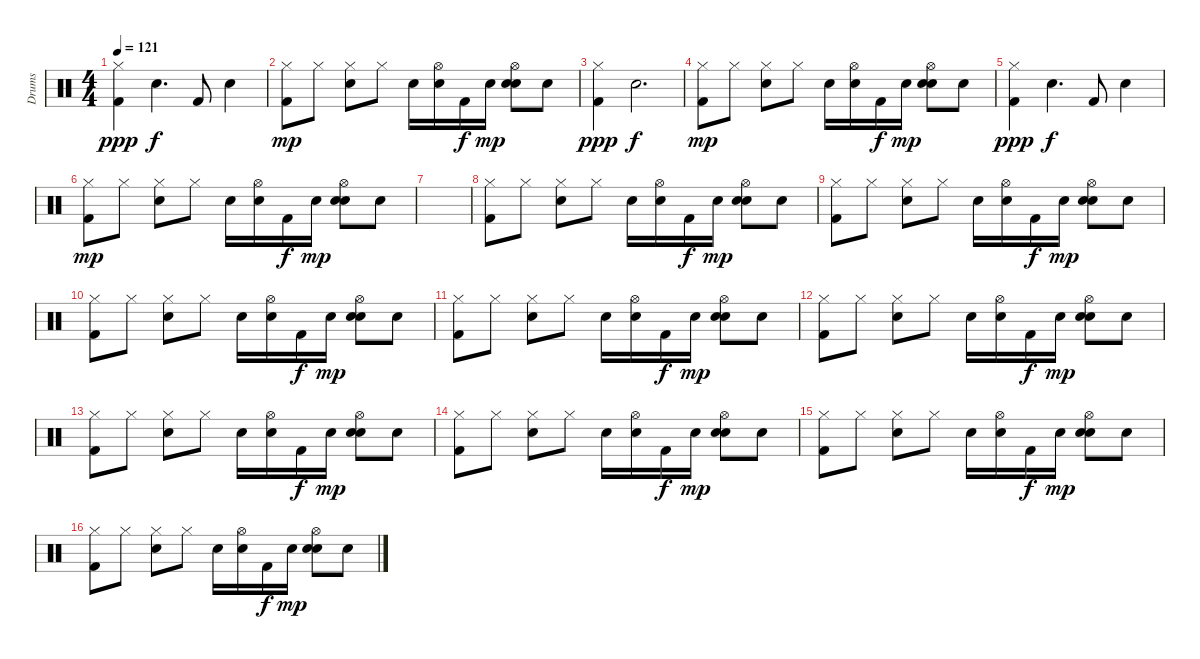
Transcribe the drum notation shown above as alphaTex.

\track ("Drums" "Drums") {instrument percussion}
\staff {score}
\articulation defaults
\ts (4 4)
\tempo 121
\clef neutral
\ks c
("Hi-Hat (closed)" "Kick (hit) 2").4{dy ppp balance 8} "Hand Clap (hit)".4{d dy f} "Kick (hit) 2".8 "Hand Clap (hit)".4 |
("Hi-Hat (closed)" "Kick (hit) 2").8{dy mp balance 11} "Hi-Hat (closed)".8 ("Hi-Hat (closed)" "Hand Clap (hit)").8 "Hi-Hat (closed)".8 "Electric Snare (hit)".16 ("Hi-Hat (open)" "Electric Snare (hit)").16 "Kick (hit) 2".16{dy f} "Electric Snare (hit)".16{dy mp} ("Hi-Hat (open)" "Electric Snare (hit)" "Hand Clap (hit)").8 "Electric Snare (hit)".8 |
("Hi-Hat (closed)" "Kick (hit) 2").4{dy ppp balance 8} "Hand Clap (hit)".2{d dy f} |
("Hi-Hat (closed)" "Kick (hit) 2").8{dy mp balance 5} "Hi-Hat (closed)".8 ("Hi-Hat (closed)" "Hand Clap (hit)").8 "Hi-Hat (closed)".8 "Electric Snare (hit)".16 ("Hi-Hat (open)" "Electric Snare (hit)").16 "Kick (hit) 2".16{dy f} "Electric Snare (hit)".16{dy mp} ("Hi-Hat (open)" "Electric Snare (hit)" "Hand Clap (hit)").8 "Electric Snare (hit)".8 |
("Hi-Hat (closed)" "Kick (hit) 2").4{dy ppp balance 8} "Hand Clap (hit)".4{d dy f} "Kick (hit) 2".8 "Hand Clap (hit)".4 |
("Hi-Hat (closed)" "Kick (hit) 2").8{dy mp balance 11} "Hi-Hat (closed)".8 ("Hi-Hat (closed)" "Hand Clap (hit)").8 "Hi-Hat (closed)".8 "Electric Snare (hit)".16 ("Hi-Hat (open)" "Electric Snare (hit)").16 "Kick (hit) 2".16{dy f} "Electric Snare (hit)".16{dy mp} ("Hi-Hat (open)" "Electric Snare (hit)" "Hand Clap (hit)").8 "Electric Snare (hit)".8 |
|
("Hi-Hat (closed)" "Kick (hit) 2").8{volume 13 balance 8} "Hi-Hat (closed)".8 ("Hi-Hat (closed)" "Hand Clap (hit)").8 "Hi-Hat (closed)".8 "Electric Snare (hit)".16 ("Hi-Hat (open)" "Electric Snare (hit)").16 "Kick (hit) 2".16{dy f} "Electric Snare (hit)".16{dy mp} ("Hi-Hat (open)" "Electric Snare (hit)" "Hand Clap (hit)").8 "Electric Snare (hit)".8 |
("Hi-Hat (closed)" "Kick (hit) 2").8 "Hi-Hat (closed)".8 ("Hi-Hat (closed)" "Hand Clap (hit)").8 "Hi-Hat (closed)".8 "Electric Snare (hit)".16 ("Hi-Hat (open)" "Electric Snare (hit)").16 "Kick (hit) 2".16{dy f} "Electric Snare (hit)".16{dy mp} ("Hi-Hat (open)" "Electric Snare (hit)" "Hand Clap (hit)").8 "Electric Snare (hit)".8 |
("Hi-Hat (closed)" "Kick (hit) 2").8 "Hi-Hat (closed)".8 ("Hi-Hat (closed)" "Hand Clap (hit)").8 "Hi-Hat (closed)".8 "Electric Snare (hit)".16 ("Hi-Hat (open)" "Electric Snare (hit)").16 "Kick (hit) 2".16{dy f} "Electric Snare (hit)".16{dy mp} ("Hi-Hat (open)" "Electric Snare (hit)" "Hand Clap (hit)").8 "Electric Snare (hit)".8 |
("Hi-Hat (closed)" "Kick (hit) 2").8 "Hi-Hat (closed)".8 ("Hi-Hat (closed)" "Hand Clap (hit)").8 "Hi-Hat (closed)".8 "Electric Snare (hit)".16 ("Hi-Hat (open)" "Electric Snare (hit)").16 "Kick (hit) 2".16{dy f} "Electric Snare (hit)".16{dy mp} ("Hi-Hat (open)" "Electric Snare (hit)" "Hand Clap (hit)").8 "Electric Snare (hit)".8 |
("Hi-Hat (closed)" "Kick (hit) 2").8 "Hi-Hat (closed)".8 ("Hi-Hat (closed)" "Hand Clap (hit)").8 "Hi-Hat (closed)".8 "Electric Snare (hit)".16 ("Hi-Hat (open)" "Electric Snare (hit)").16 "Kick (hit) 2".16{dy f} "Electric Snare (hit)".16{dy mp} ("Hi-Hat (open)" "Electric Snare (hit)" "Hand Clap (hit)").8 "Electric Snare (hit)".8 |
("Hi-Hat (closed)" "Kick (hit) 2").8 "Hi-Hat (closed)".8 ("Hi-Hat (closed)" "Hand Clap (hit)").8 "Hi-Hat (closed)".8 "Electric Snare (hit)".16 ("Hi-Hat (open)" "Electric Snare (hit)").16 "Kick (hit) 2".16{dy f} "Electric Snare (hit)".16{dy mp} ("Hi-Hat (open)" "Electric Snare (hit)" "Hand Clap (hit)").8 "Electric Snare (hit)".8 |
("Hi-Hat (closed)" "Kick (hit) 2").8 "Hi-Hat (closed)".8 ("Hi-Hat (closed)" "Hand Clap (hit)").8 "Hi-Hat (closed)".8 "Electric Snare (hit)".16 ("Hi-Hat (open)" "Electric Snare (hit)").16 "Kick (hit) 2".16{dy f} "Electric Snare (hit)".16{dy mp} ("Hi-Hat (open)" "Electric Snare (hit)" "Hand Clap (hit)").8 "Electric Snare (hit)".8 |
("Hi-Hat (closed)" "Kick (hit) 2").8 "Hi-Hat (closed)".8 ("Hi-Hat (closed)" "Hand Clap (hit)").8 "Hi-Hat (closed)".8 "Electric Snare (hit)".16 ("Hi-Hat (open)" "Electric Snare (hit)").16 "Kick (hit) 2".16{dy f} "Electric Snare (hit)".16{dy mp} ("Hi-Hat (open)" "Electric Snare (hit)" "Hand Clap (hit)").8 "Electric Snare (hit)".8 |
("Hi-Hat (closed)" "Kick (hit) 2").8 "Hi-Hat (closed)".8 ("Hi-Hat (closed)" "Hand Clap (hit)").8 "Hi-Hat (closed)".8 "Electric Snare (hit)".16 ("Hi-Hat (open)" "Electric Snare (hit)").16 "Kick (hit) 2".16{dy f} "Electric Snare (hit)".16{dy mp} ("Hi-Hat (open)" "Electric Snare (hit)" "Hand Clap (hit)").8 "Electric Snare (hit)".8
